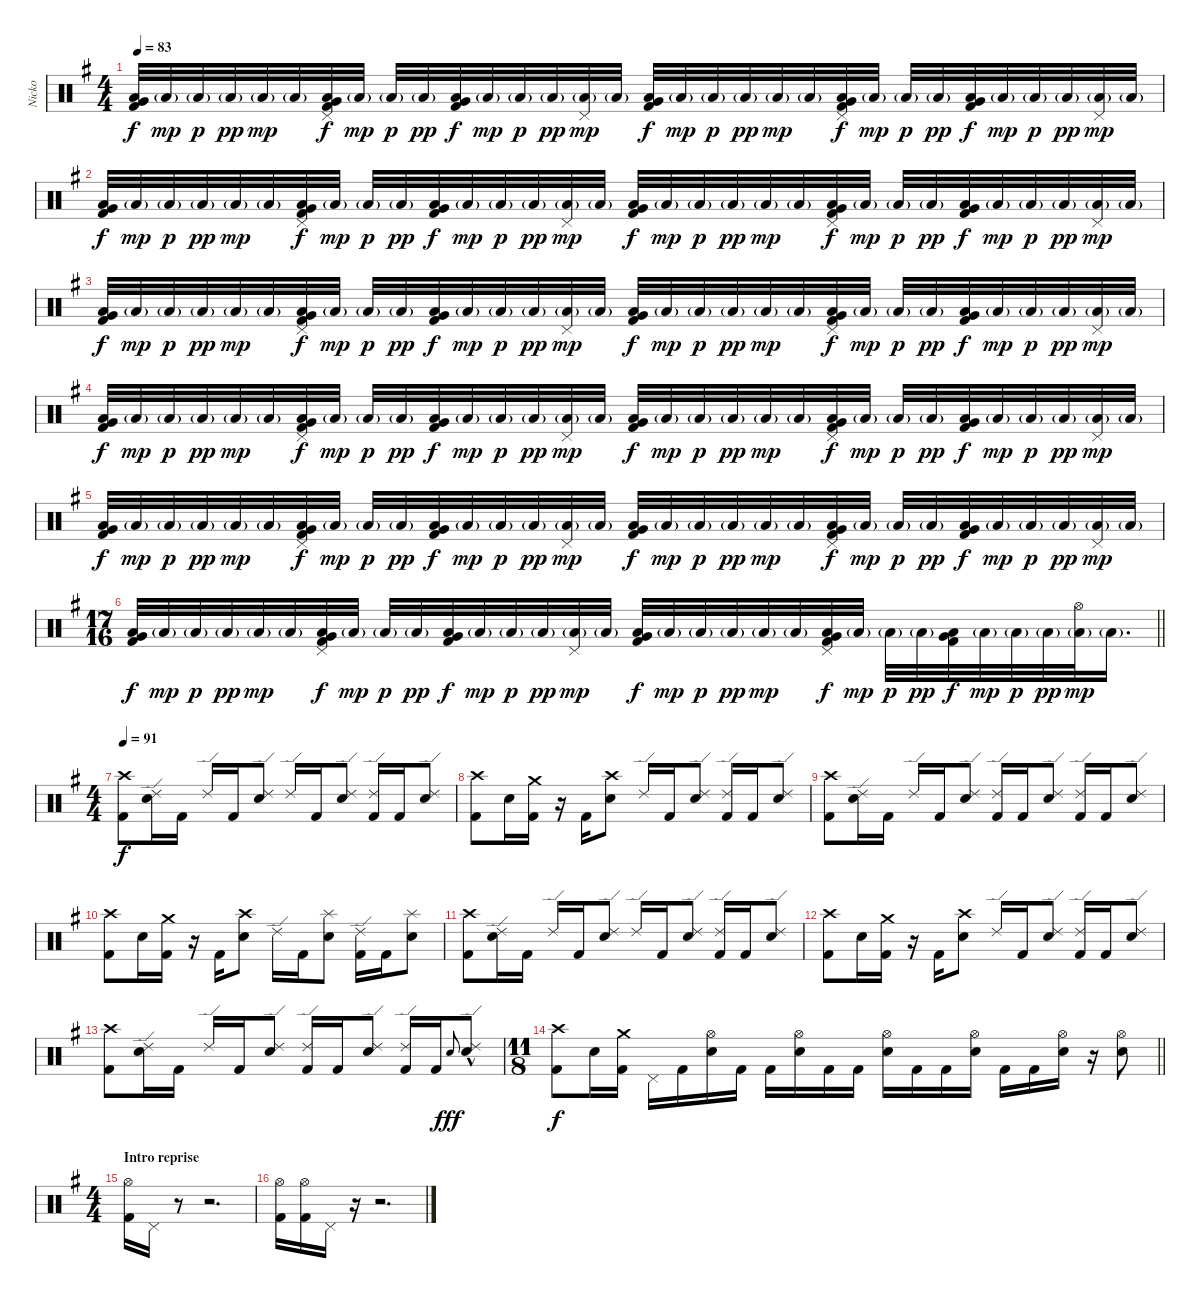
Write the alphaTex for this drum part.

\track ("Nicko" "Nicko") {instrument percussion}
\staff {score}
\articulation defaults
\ts (4 4)
\tempo 83
\clef neutral
\ks eminor
("Low Floor Tom (hit)" "Very Low Tom (hit)" "Kick (hit) 2").32{dy f} "Low Floor Tom (hit)"{g}.32{dy mp} "Low Floor Tom (hit)"{g}.32{dy p} "Low Floor Tom (hit)"{g}.32{dy pp} "Low Floor Tom (hit)"{g}.32{dy mp} "Low Floor Tom (hit)"{g}.32 ("Pedal Hi-Hat (hit)" "Low Floor Tom (hit)" "Very Low Tom (hit)" "Kick (hit) 2").32{dy f} "Low Floor Tom (hit)"{g}.32{dy mp} "Low Floor Tom (hit)"{g}.32{dy p} "Low Floor Tom (hit)"{g}.32{dy pp} ("Low Floor Tom (hit)" "Very Low Tom (hit)" "Kick (hit) 2").32{dy f} "Low Floor Tom (hit)"{g}.32{dy mp} "Low Floor Tom (hit)"{g}.32{dy p} "Low Floor Tom (hit)"{g}.32{dy pp} ("Pedal Hi-Hat (hit)" "Low Floor Tom (hit)"{g}).32{dy mp} "Low Floor Tom (hit)"{g}.32 ("Low Floor Tom (hit)" "Very Low Tom (hit)" "Kick (hit) 2").32{dy f} "Low Floor Tom (hit)"{g}.32{dy mp} "Low Floor Tom (hit)"{g}.32{dy p} "Low Floor Tom (hit)"{g}.32{dy pp} "Low Floor Tom (hit)"{g}.32{dy mp} "Low Floor Tom (hit)"{g}.32 ("Pedal Hi-Hat (hit)" "Low Floor Tom (hit)" "Very Low Tom (hit)" "Kick (hit) 2").32{dy f} "Low Floor Tom (hit)"{g}.32{dy mp} "Low Floor Tom (hit)"{g}.32{dy p} "Low Floor Tom (hit)"{g}.32{dy pp} ("Low Floor Tom (hit)" "Very Low Tom (hit)" "Kick (hit) 2").32{dy f} "Low Floor Tom (hit)"{g}.32{dy mp} "Low Floor Tom (hit)"{g}.32{dy p} "Low Floor Tom (hit)"{g}.32{dy pp} ("Pedal Hi-Hat (hit)" "Low Floor Tom (hit)"{g}).32{dy mp} "Low Floor Tom (hit)"{g}.32 |
("Low Floor Tom (hit)" "Very Low Tom (hit)" "Kick (hit) 2").32{dy f} "Low Floor Tom (hit)"{g}.32{dy mp} "Low Floor Tom (hit)"{g}.32{dy p} "Low Floor Tom (hit)"{g}.32{dy pp} "Low Floor Tom (hit)"{g}.32{dy mp} "Low Floor Tom (hit)"{g}.32 ("Pedal Hi-Hat (hit)" "Low Floor Tom (hit)" "Very Low Tom (hit)" "Kick (hit) 2").32{dy f} "Low Floor Tom (hit)"{g}.32{dy mp} "Low Floor Tom (hit)"{g}.32{dy p} "Low Floor Tom (hit)"{g}.32{dy pp} ("Low Floor Tom (hit)" "Very Low Tom (hit)" "Kick (hit) 2").32{dy f} "Low Floor Tom (hit)"{g}.32{dy mp} "Low Floor Tom (hit)"{g}.32{dy p} "Low Floor Tom (hit)"{g}.32{dy pp} ("Pedal Hi-Hat (hit)" "Low Floor Tom (hit)"{g}).32{dy mp} "Low Floor Tom (hit)"{g}.32 ("Low Floor Tom (hit)" "Very Low Tom (hit)" "Kick (hit) 2").32{dy f} "Low Floor Tom (hit)"{g}.32{dy mp} "Low Floor Tom (hit)"{g}.32{dy p} "Low Floor Tom (hit)"{g}.32{dy pp} "Low Floor Tom (hit)"{g}.32{dy mp} "Low Floor Tom (hit)"{g}.32 ("Pedal Hi-Hat (hit)" "Low Floor Tom (hit)" "Very Low Tom (hit)" "Kick (hit) 2").32{dy f} "Low Floor Tom (hit)"{g}.32{dy mp} "Low Floor Tom (hit)"{g}.32{dy p} "Low Floor Tom (hit)"{g}.32{dy pp} ("Low Floor Tom (hit)" "Very Low Tom (hit)" "Kick (hit) 2").32{dy f} "Low Floor Tom (hit)"{g}.32{dy mp} "Low Floor Tom (hit)"{g}.32{dy p} "Low Floor Tom (hit)"{g}.32{dy pp} ("Pedal Hi-Hat (hit)" "Low Floor Tom (hit)"{g}).32{dy mp} "Low Floor Tom (hit)"{g}.32 |
("Low Floor Tom (hit)" "Very Low Tom (hit)" "Kick (hit) 2").32{dy f} "Low Floor Tom (hit)"{g}.32{dy mp} "Low Floor Tom (hit)"{g}.32{dy p} "Low Floor Tom (hit)"{g}.32{dy pp} "Low Floor Tom (hit)"{g}.32{dy mp} "Low Floor Tom (hit)"{g}.32 ("Pedal Hi-Hat (hit)" "Low Floor Tom (hit)" "Very Low Tom (hit)" "Kick (hit) 2").32{dy f} "Low Floor Tom (hit)"{g}.32{dy mp} "Low Floor Tom (hit)"{g}.32{dy p} "Low Floor Tom (hit)"{g}.32{dy pp} ("Low Floor Tom (hit)" "Very Low Tom (hit)" "Kick (hit) 2").32{dy f} "Low Floor Tom (hit)"{g}.32{dy mp} "Low Floor Tom (hit)"{g}.32{dy p} "Low Floor Tom (hit)"{g}.32{dy pp} ("Pedal Hi-Hat (hit)" "Low Floor Tom (hit)"{g}).32{dy mp} "Low Floor Tom (hit)"{g}.32 ("Low Floor Tom (hit)" "Very Low Tom (hit)" "Kick (hit) 2").32{dy f} "Low Floor Tom (hit)"{g}.32{dy mp} "Low Floor Tom (hit)"{g}.32{dy p} "Low Floor Tom (hit)"{g}.32{dy pp} "Low Floor Tom (hit)"{g}.32{dy mp} "Low Floor Tom (hit)"{g}.32 ("Pedal Hi-Hat (hit)" "Low Floor Tom (hit)" "Very Low Tom (hit)" "Kick (hit) 2").32{dy f} "Low Floor Tom (hit)"{g}.32{dy mp} "Low Floor Tom (hit)"{g}.32{dy p} "Low Floor Tom (hit)"{g}.32{dy pp} ("Low Floor Tom (hit)" "Very Low Tom (hit)" "Kick (hit) 2").32{dy f} "Low Floor Tom (hit)"{g}.32{dy mp} "Low Floor Tom (hit)"{g}.32{dy p} "Low Floor Tom (hit)"{g}.32{dy pp} ("Pedal Hi-Hat (hit)" "Low Floor Tom (hit)"{g}).32{dy mp} "Low Floor Tom (hit)"{g}.32 |
("Low Floor Tom (hit)" "Very Low Tom (hit)" "Kick (hit) 2").32{dy f} "Low Floor Tom (hit)"{g}.32{dy mp} "Low Floor Tom (hit)"{g}.32{dy p} "Low Floor Tom (hit)"{g}.32{dy pp} "Low Floor Tom (hit)"{g}.32{dy mp} "Low Floor Tom (hit)"{g}.32 ("Pedal Hi-Hat (hit)" "Low Floor Tom (hit)" "Very Low Tom (hit)" "Kick (hit) 2").32{dy f} "Low Floor Tom (hit)"{g}.32{dy mp} "Low Floor Tom (hit)"{g}.32{dy p} "Low Floor Tom (hit)"{g}.32{dy pp} ("Low Floor Tom (hit)" "Very Low Tom (hit)" "Kick (hit) 2").32{dy f} "Low Floor Tom (hit)"{g}.32{dy mp} "Low Floor Tom (hit)"{g}.32{dy p} "Low Floor Tom (hit)"{g}.32{dy pp} ("Pedal Hi-Hat (hit)" "Low Floor Tom (hit)"{g}).32{dy mp} "Low Floor Tom (hit)"{g}.32 ("Low Floor Tom (hit)" "Very Low Tom (hit)" "Kick (hit) 2").32{dy f} "Low Floor Tom (hit)"{g}.32{dy mp} "Low Floor Tom (hit)"{g}.32{dy p} "Low Floor Tom (hit)"{g}.32{dy pp} "Low Floor Tom (hit)"{g}.32{dy mp} "Low Floor Tom (hit)"{g}.32 ("Pedal Hi-Hat (hit)" "Low Floor Tom (hit)" "Very Low Tom (hit)" "Kick (hit) 2").32{dy f} "Low Floor Tom (hit)"{g}.32{dy mp} "Low Floor Tom (hit)"{g}.32{dy p} "Low Floor Tom (hit)"{g}.32{dy pp} ("Low Floor Tom (hit)" "Very Low Tom (hit)" "Kick (hit) 2").32{dy f} "Low Floor Tom (hit)"{g}.32{dy mp} "Low Floor Tom (hit)"{g}.32{dy p} "Low Floor Tom (hit)"{g}.32{dy pp} ("Pedal Hi-Hat (hit)" "Low Floor Tom (hit)"{g}).32{dy mp} "Low Floor Tom (hit)"{g}.32 |
("Low Floor Tom (hit)" "Very Low Tom (hit)" "Kick (hit) 2").32{dy f} "Low Floor Tom (hit)"{g}.32{dy mp} "Low Floor Tom (hit)"{g}.32{dy p} "Low Floor Tom (hit)"{g}.32{dy pp} "Low Floor Tom (hit)"{g}.32{dy mp} "Low Floor Tom (hit)"{g}.32 ("Pedal Hi-Hat (hit)" "Low Floor Tom (hit)" "Very Low Tom (hit)" "Kick (hit) 2").32{dy f} "Low Floor Tom (hit)"{g}.32{dy mp} "Low Floor Tom (hit)"{g}.32{dy p} "Low Floor Tom (hit)"{g}.32{dy pp} ("Low Floor Tom (hit)" "Very Low Tom (hit)" "Kick (hit) 2").32{dy f} "Low Floor Tom (hit)"{g}.32{dy mp} "Low Floor Tom (hit)"{g}.32{dy p} "Low Floor Tom (hit)"{g}.32{dy pp} ("Pedal Hi-Hat (hit)" "Low Floor Tom (hit)"{g}).32{dy mp} "Low Floor Tom (hit)"{g}.32 ("Low Floor Tom (hit)" "Very Low Tom (hit)" "Kick (hit) 2").32{dy f} "Low Floor Tom (hit)"{g}.32{dy mp} "Low Floor Tom (hit)"{g}.32{dy p} "Low Floor Tom (hit)"{g}.32{dy pp} "Low Floor Tom (hit)"{g}.32{dy mp} "Low Floor Tom (hit)"{g}.32 ("Pedal Hi-Hat (hit)" "Low Floor Tom (hit)" "Very Low Tom (hit)" "Kick (hit) 2").32{dy f} "Low Floor Tom (hit)"{g}.32{dy mp} "Low Floor Tom (hit)"{g}.32{dy p} "Low Floor Tom (hit)"{g}.32{dy pp} ("Low Floor Tom (hit)" "Very Low Tom (hit)" "Kick (hit) 2").32{dy f} "Low Floor Tom (hit)"{g}.32{dy mp} "Low Floor Tom (hit)"{g}.32{dy p} "Low Floor Tom (hit)"{g}.32{dy pp} ("Pedal Hi-Hat (hit)" "Low Floor Tom (hit)"{g}).32{dy mp} "Low Floor Tom (hit)"{g}.32 |
\ts (17 16)
\barLineRight lightlight
("Low Floor Tom (hit)" "Very Low Tom (hit)" "Kick (hit) 2").32{dy f} "Low Floor Tom (hit)"{g}.32{dy mp} "Low Floor Tom (hit)"{g}.32{dy p} "Low Floor Tom (hit)"{g}.32{dy pp} "Low Floor Tom (hit)"{g}.32{dy mp} "Low Floor Tom (hit)"{g}.32 ("Pedal Hi-Hat (hit)" "Low Floor Tom (hit)" "Very Low Tom (hit)" "Kick (hit) 2").32{dy f} "Low Floor Tom (hit)"{g}.32{dy mp} "Low Floor Tom (hit)"{g}.32{dy p} "Low Floor Tom (hit)"{g}.32{dy pp} ("Low Floor Tom (hit)" "Very Low Tom (hit)" "Kick (hit) 2").32{dy f} "Low Floor Tom (hit)"{g}.32{dy mp} "Low Floor Tom (hit)"{g}.32{dy p} "Low Floor Tom (hit)"{g}.32{dy pp} ("Pedal Hi-Hat (hit)" "Low Floor Tom (hit)"{g}).32{dy mp} "Low Floor Tom (hit)"{g}.32 ("Low Floor Tom (hit)" "Very Low Tom (hit)" "Kick (hit) 2").32{dy f} "Low Floor Tom (hit)"{g}.32{dy mp} "Low Floor Tom (hit)"{g}.32{dy p} "Low Floor Tom (hit)"{g}.32{dy pp} "Low Floor Tom (hit)"{g}.32{dy mp} "Low Floor Tom (hit)"{g}.32 ("Pedal Hi-Hat (hit)" "Low Floor Tom (hit)" "Very Low Tom (hit)" "Kick (hit) 2").32{dy f} "Low Floor Tom (hit)"{g}.32{dy mp} "Low Floor Tom (hit)"{g}.32{dy p} "Low Floor Tom (hit)"{g}.32{dy pp} ("Low Floor Tom (hit)" "Very Low Tom (hit)" "Kick (hit) 2").32{dy f} "Low Floor Tom (hit)"{g}.32{dy mp} "Low Floor Tom (hit)"{g}.32{dy p} "Low Floor Tom (hit)"{g}.32{dy pp} ("Hi-Hat (open)" "Low Floor Tom (hit)"{g}).32{dy mp} "Low Floor Tom (hit)"{g}.16{d} |
\ts (4 4)
\section ("" "")
\tempo 91
("Crash high (hit)" "Kick (hit) 2").8{dy f} ("Ride (edge) 2" "Snare (hit) 2").16 "Kick (hit) 2".16 "Ride (edge) 2".16 "Kick (hit) 2".16 ("Ride (edge) 2" "Snare (hit) 2").8 "Ride (edge) 2".16 "Kick (hit) 2".16 ("Ride (edge) 2" "Snare (hit) 2").8 ("Ride (edge) 2" "Kick (hit) 2").16 "Kick (hit) 2".16 ("Ride (edge) 2" "Snare (hit) 2").8 |
("Crash high (hit)" "Kick (hit) 2").8 "Snare (hit) 2".16 ("Crash medium (hit)" "Kick (hit) 2").16 r.16 "Kick (hit) 2".16 ("Crash high (hit)" "Snare (hit) 2").8 "Ride (edge) 2".16 "Kick (hit) 2".16 ("Ride (edge) 2" "Snare (hit) 2").8 ("Ride (edge) 2" "Kick (hit) 2").16 "Kick (hit) 2".16 ("Ride (edge) 2" "Snare (hit) 2").8 |
("Crash high (hit)" "Kick (hit) 2").8 ("Ride (edge) 2" "Snare (hit) 2").16 "Kick (hit) 2".16 "Ride (edge) 2".16 "Kick (hit) 2".16 ("Ride (edge) 2" "Snare (hit) 2").8 ("Ride (edge) 2" "Kick (hit) 2").16 "Kick (hit) 2".16 ("Ride (edge) 2" "Snare (hit) 2").8 ("Ride (edge) 2" "Kick (hit) 2").16 "Kick (hit) 2".16 ("Ride (edge) 2" "Snare (hit) 2").8 |
("Crash high (hit)" "Kick (hit) 2").8 "Snare (hit) 2".16 ("Crash medium (hit)" "Kick (hit) 2").16 r.16 "Kick (hit) 2".16 ("Crash high (hit)" "Snare (hit) 2").8 "Ride (edge) 2".16 "Kick (hit) 2".16 ("Splash (hit)" "Snare (hit) 2").8 ("Ride (edge) 2" "Kick (hit) 2").16 "Kick (hit) 2".16 ("Splash (hit)" "Snare (hit) 2").8 |
("Crash high (hit)" "Kick (hit) 2").8 ("Ride (edge) 2" "Snare (hit) 2").16 "Kick (hit) 2".16 "Ride (edge) 2".16 "Kick (hit) 2".16 ("Ride (edge) 2" "Snare (hit) 2").8 "Ride (edge) 2".16 "Kick (hit) 2".16 ("Ride (edge) 2" "Snare (hit) 2").8 ("Ride (edge) 2" "Kick (hit) 2").16 "Kick (hit) 2".16 ("Ride (edge) 2" "Snare (hit) 2").8 |
("Crash high (hit)" "Kick (hit) 2").8 "Snare (hit) 2".16 ("Crash medium (hit)" "Kick (hit) 2").16 r.16 "Kick (hit) 2".16 ("Crash high (hit)" "Snare (hit) 2").8 "Ride (edge) 2".16 "Kick (hit) 2".16 ("Ride (edge) 2" "Snare (hit) 2").8 ("Ride (edge) 2" "Kick (hit) 2").16 "Kick (hit) 2".16 ("Ride (edge) 2" "Snare (hit) 2").8 |
("Crash high (hit)" "Kick (hit) 2").8 ("Ride (edge) 2" "Snare (hit) 2").16 "Kick (hit) 2".16 "Ride (edge) 2".16 "Kick (hit) 2".16 ("Ride (edge) 2" "Snare (hit) 2").8 ("Ride (edge) 2" "Kick (hit) 2").16 "Kick (hit) 2".16 ("Ride (edge) 2" "Snare (hit) 2").8 ("Ride (edge) 2" "Kick (hit) 2").16 "Kick (hit) 2".16 "Snare (hit) 2".8{gr onbeat dy fff} ("Ride (edge) 2" "Snare (hit) 2"{hac}).8 |
\ts (11 8)
\barLineRight lightlight
("Crash high (hit)" "Kick (hit) 2").8{dy f} "Snare (hit) 2".16 ("Crash medium (hit)" "Kick (hit) 2").16 "Pedal Hi-Hat (hit)".16 "Kick (hit) 2".16 ("Hi-Hat (open)" "Snare (hit) 2").16 "Kick (hit) 2".16 "Kick (hit) 2".16 ("Hi-Hat (open)" "Snare (hit) 2").16 "Kick (hit) 2".16 "Kick (hit) 2".16 ("Hi-Hat (open)" "Snare (hit) 2").16 "Kick (hit) 2".16 "Kick (hit) 2".16 ("Hi-Hat (open)" "Snare (hit) 2").16 "Kick (hit) 2".16 "Kick (hit) 2".16 ("Hi-Hat (open)" "Snare (hit) 2").16 r.16 ("Hi-Hat (open)" "Snare (hit) 2").8 |
\ts (4 4)
\section ("" "Intro reprise")
("Hi-Hat (open)" "Kick (hit) 2").16 "Pedal Hi-Hat (hit)".16 r.8 r.2{d} |
("Hi-Hat (open)" "Kick (hit) 2").16 ("Hi-Hat (open)" "Kick (hit) 2").16 "Pedal Hi-Hat (hit)".16 r.16 r.2{d}
